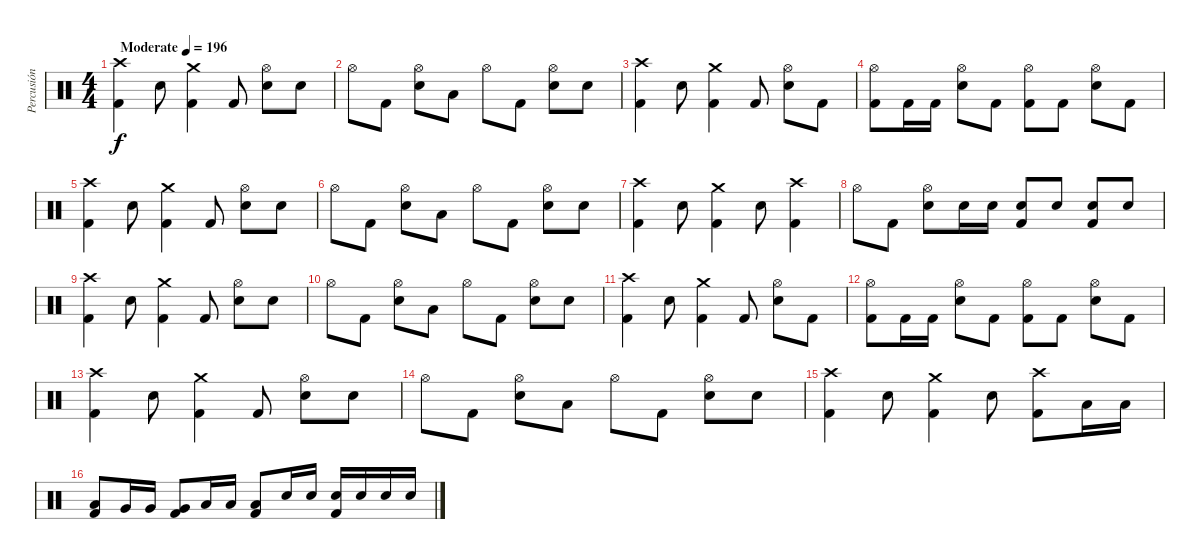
\track ("Percusión" "Percusión") {instrument percussion}
\staff {score}
\articulation defaults
\ts (4 4)
\tempo (196 "Moderate")
\clef neutral
\ks c
("Crash high (hit)" "Kick (hit) 2").4{dy f} "Electric Snare (hit)".8 ("Crash medium (hit)" "Kick (hit) 2").4 "Kick (hit) 2".8 ("Hi-Hat (open)" "Electric Snare (hit)").8 "Electric Snare (hit)".8 |
"Hi-Hat (open)".8 "Kick (hit) 2".8 ("Hi-Hat (open)" "Electric Snare (hit)").8 "Low Tom (hit)".8 "Hi-Hat (open)".8 "Kick (hit) 2".8 ("Hi-Hat (open)" "Electric Snare (hit)").8 "Electric Snare (hit)".8 |
("Crash high (hit)" "Kick (hit) 2").4 "Electric Snare (hit)".8 ("Crash medium (hit)" "Kick (hit) 2").4 "Kick (hit) 2".8 ("Hi-Hat (open)" "Electric Snare (hit)").8 "Kick (hit) 2".8 |
("Hi-Hat (open)" "Kick (hit) 2").8 "Kick (hit) 2".16 "Kick (hit) 2".16 ("Hi-Hat (open)" "Electric Snare (hit)").8 "Kick (hit) 2".8 ("Hi-Hat (open)" "Kick (hit) 2").8 "Kick (hit) 2".8 ("Hi-Hat (open)" "Electric Snare (hit)").8 "Kick (hit) 2".8 |
("Crash high (hit)" "Kick (hit) 2").4 "Electric Snare (hit)".8 ("Crash medium (hit)" "Kick (hit) 2").4 "Kick (hit) 2".8 ("Hi-Hat (open)" "Electric Snare (hit)").8 "Electric Snare (hit)".8 |
"Hi-Hat (open)".8 "Kick (hit) 2".8 ("Hi-Hat (open)" "Electric Snare (hit)").8 "Low Tom (hit)".8 "Hi-Hat (open)".8 "Kick (hit) 2".8 ("Hi-Hat (open)" "Electric Snare (hit)").8 "Electric Snare (hit)".8 |
("Crash high (hit)" "Kick (hit) 2").4 "Electric Snare (hit)".8 ("Crash medium (hit)" "Kick (hit) 2").4 "Electric Snare (hit)".8 ("Crash high (hit)" "Kick (hit) 2").4 |
"Hi-Hat (open)".8 "Kick (hit) 2".8 ("Hi-Hat (open)" "Electric Snare (hit)").8 "Electric Snare (hit)".16 "Electric Snare (hit)".16 ("Electric Snare (hit)" "Kick (hit) 2").8 "Electric Snare (hit)".8 ("Electric Snare (hit)" "Kick (hit) 2").8 "Electric Snare (hit)".8 |
("Crash high (hit)" "Kick (hit) 2").4 "Electric Snare (hit)".8 ("Crash medium (hit)" "Kick (hit) 2").4 "Kick (hit) 2".8 ("Hi-Hat (open)" "Electric Snare (hit)").8 "Electric Snare (hit)".8 |
"Hi-Hat (open)".8 "Kick (hit) 2".8 ("Hi-Hat (open)" "Electric Snare (hit)").8 "Low Tom (hit)".8 "Hi-Hat (open)".8 "Kick (hit) 2".8 ("Hi-Hat (open)" "Electric Snare (hit)").8 "Electric Snare (hit)".8 |
("Crash high (hit)" "Kick (hit) 2").4 "Electric Snare (hit)".8 ("Crash medium (hit)" "Kick (hit) 2").4 "Kick (hit) 2".8 ("Hi-Hat (open)" "Electric Snare (hit)").8 "Kick (hit) 2".8 |
("Hi-Hat (open)" "Kick (hit) 2").8 "Kick (hit) 2".16 "Kick (hit) 2".16 ("Hi-Hat (open)" "Electric Snare (hit)").8 "Kick (hit) 2".8 ("Hi-Hat (open)" "Kick (hit) 2").8 "Kick (hit) 2".8 ("Hi-Hat (open)" "Electric Snare (hit)").8 "Kick (hit) 2".8 |
("Crash high (hit)" "Kick (hit) 2").4 "Electric Snare (hit)".8 ("Crash medium (hit)" "Kick (hit) 2").4 "Kick (hit) 2".8 ("Hi-Hat (open)" "Electric Snare (hit)").8 "Electric Snare (hit)".8 |
"Hi-Hat (open)".8 "Kick (hit) 2".8 ("Hi-Hat (open)" "Electric Snare (hit)").8 "Low Tom (hit)".8 "Hi-Hat (open)".8 "Kick (hit) 2".8 ("Hi-Hat (open)" "Electric Snare (hit)").8 "Electric Snare (hit)".8 |
("Crash high (hit)" "Kick (hit) 2").4 "Electric Snare (hit)".8 ("Crash medium (hit)" "Kick (hit) 2").4 "Electric Snare (hit)".8 ("Crash high (hit)" "Kick (hit) 2").8 "Low Tom (hit)".16 "Low Tom (hit)".16 |
("Low Tom (hit)" "Kick (hit) 2").8 "Very Low Tom (hit)".16 "Very Low Tom (hit)".16 ("Very Low Tom (hit)" "Kick (hit) 2").8 "Low Tom (hit)".16 "Low Tom (hit)".16 ("Low Tom (hit)" "Kick (hit) 2").8 "Electric Snare (hit)".16 "Electric Snare (hit)".16 ("Electric Snare (hit)" "Kick (hit) 2").16 "Electric Snare (hit)".16 "Electric Snare (hit)".16 "Electric Snare (hit)".16
